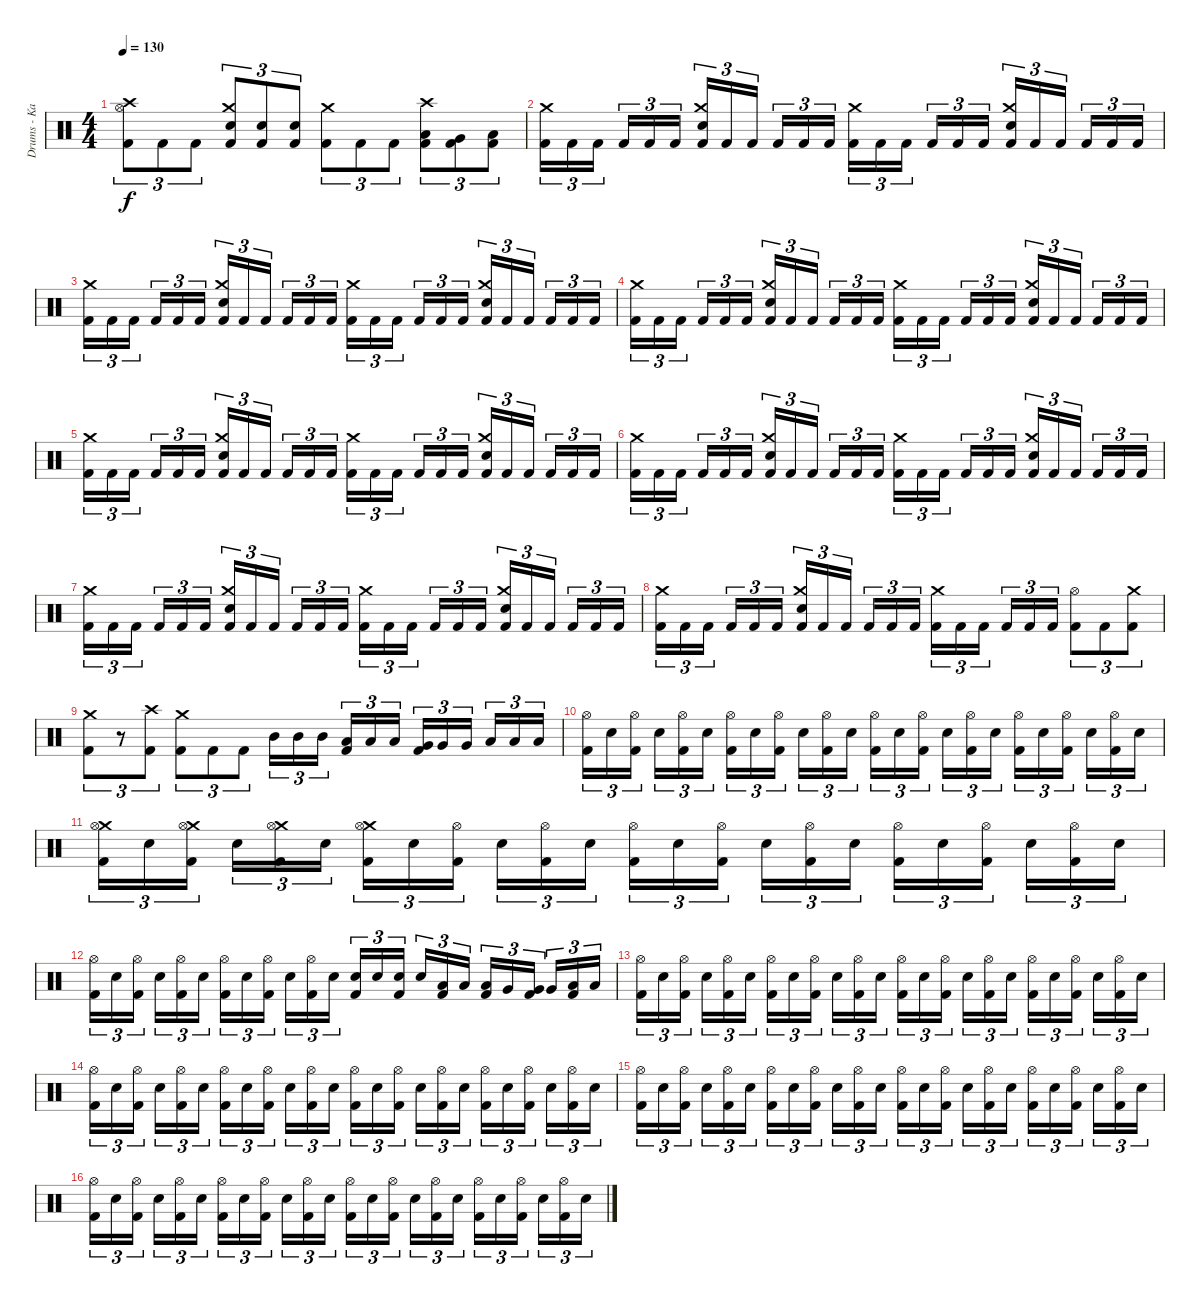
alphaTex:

\track ("Drums - Kai Hahto " "Drums - Ka") {instrument percussion}
\staff {score}
\articulation defaults
\ts (4 4)
\tempo 130
\clef neutral
\ks c
("Crash high (hit)" "Hi-Hat (open)" "Kick (hit) 2").8{tu (3 2) dy f} "Kick (hit) 2".8{tu (3 2)} "Kick (hit) 2".8{tu (3 2)} ("Crash medium (hit)" "Snare (hit) 2" "Kick (hit) 2").8{tu (3 2)} ("Snare (hit) 2" "Kick (hit) 2").8{tu (3 2)} ("Snare (hit) 2" "Kick (hit) 2").8{tu (3 2)} ("Crash medium (hit)" "Kick (hit) 2").8{tu (3 2)} "Kick (hit) 2".8{tu (3 2)} "Kick (hit) 2".8{tu (3 2)} ("Crash high (hit)" "Low Tom (hit)" "Kick (hit) 2").8{tu (3 2)} ("Very Low Tom (hit)" "Kick (hit) 2").8{tu (3 2)} ("Low Floor Tom (hit)" "Kick (hit) 2").8{tu (3 2)} |
("Crash medium (hit)" "Kick (hit) 2").16{tu (3 2)} "Kick (hit) 2".16{tu (3 2)} "Kick (hit) 2".16{tu (3 2) beam splitsecondary} "Kick (hit) 2".16{tu (3 2)} "Kick (hit) 2".16{tu (3 2)} "Kick (hit) 2".16{tu (3 2)} ("Crash medium (hit)" "Snare (hit) 2" "Kick (hit) 2").16{tu (3 2)} "Kick (hit) 2".16{tu (3 2)} "Kick (hit) 2".16{tu (3 2) beam splitsecondary} "Kick (hit) 2".16{tu (3 2)} "Kick (hit) 2".16{tu (3 2)} "Kick (hit) 2".16{tu (3 2)} ("Crash medium (hit)" "Kick (hit) 2").16{tu (3 2)} "Kick (hit) 2".16{tu (3 2)} "Kick (hit) 2".16{tu (3 2) beam splitsecondary} "Kick (hit) 2".16{tu (3 2)} "Kick (hit) 2".16{tu (3 2)} "Kick (hit) 2".16{tu (3 2)} ("Crash medium (hit)" "Snare (hit) 2" "Kick (hit) 2").16{tu (3 2)} "Kick (hit) 2".16{tu (3 2)} "Kick (hit) 2".16{tu (3 2) beam splitsecondary} "Kick (hit) 2".16{tu (3 2)} "Kick (hit) 2".16{tu (3 2)} "Kick (hit) 2".16{tu (3 2)} |
("Crash medium (hit)" "Kick (hit) 2").16{tu (3 2)} "Kick (hit) 2".16{tu (3 2)} "Kick (hit) 2".16{tu (3 2) beam splitsecondary} "Kick (hit) 2".16{tu (3 2)} "Kick (hit) 2".16{tu (3 2)} "Kick (hit) 2".16{tu (3 2)} ("Crash medium (hit)" "Snare (hit) 2" "Kick (hit) 2").16{tu (3 2)} "Kick (hit) 2".16{tu (3 2)} "Kick (hit) 2".16{tu (3 2) beam splitsecondary} "Kick (hit) 2".16{tu (3 2)} "Kick (hit) 2".16{tu (3 2)} "Kick (hit) 2".16{tu (3 2)} ("Crash medium (hit)" "Kick (hit) 2").16{tu (3 2)} "Kick (hit) 2".16{tu (3 2)} "Kick (hit) 2".16{tu (3 2) beam splitsecondary} "Kick (hit) 2".16{tu (3 2)} "Kick (hit) 2".16{tu (3 2)} "Kick (hit) 2".16{tu (3 2)} ("Crash medium (hit)" "Snare (hit) 2" "Kick (hit) 2").16{tu (3 2)} "Kick (hit) 2".16{tu (3 2)} "Kick (hit) 2".16{tu (3 2) beam splitsecondary} "Kick (hit) 2".16{tu (3 2)} "Kick (hit) 2".16{tu (3 2)} "Kick (hit) 2".16{tu (3 2)} |
("Crash medium (hit)" "Kick (hit) 2").16{tu (3 2)} "Kick (hit) 2".16{tu (3 2)} "Kick (hit) 2".16{tu (3 2) beam splitsecondary} "Kick (hit) 2".16{tu (3 2)} "Kick (hit) 2".16{tu (3 2)} "Kick (hit) 2".16{tu (3 2)} ("Crash medium (hit)" "Snare (hit) 2" "Kick (hit) 2").16{tu (3 2)} "Kick (hit) 2".16{tu (3 2)} "Kick (hit) 2".16{tu (3 2) beam splitsecondary} "Kick (hit) 2".16{tu (3 2)} "Kick (hit) 2".16{tu (3 2)} "Kick (hit) 2".16{tu (3 2)} ("Crash medium (hit)" "Kick (hit) 2").16{tu (3 2)} "Kick (hit) 2".16{tu (3 2)} "Kick (hit) 2".16{tu (3 2) beam splitsecondary} "Kick (hit) 2".16{tu (3 2)} "Kick (hit) 2".16{tu (3 2)} "Kick (hit) 2".16{tu (3 2)} ("Crash medium (hit)" "Snare (hit) 2" "Kick (hit) 2").16{tu (3 2)} "Kick (hit) 2".16{tu (3 2)} "Kick (hit) 2".16{tu (3 2) beam splitsecondary} "Kick (hit) 2".16{tu (3 2)} "Kick (hit) 2".16{tu (3 2)} "Kick (hit) 2".16{tu (3 2)} |
("Crash medium (hit)" "Kick (hit) 2").16{tu (3 2)} "Kick (hit) 2".16{tu (3 2)} "Kick (hit) 2".16{tu (3 2) beam splitsecondary} "Kick (hit) 2".16{tu (3 2)} "Kick (hit) 2".16{tu (3 2)} "Kick (hit) 2".16{tu (3 2)} ("Crash medium (hit)" "Snare (hit) 2" "Kick (hit) 2").16{tu (3 2)} "Kick (hit) 2".16{tu (3 2)} "Kick (hit) 2".16{tu (3 2) beam splitsecondary} "Kick (hit) 2".16{tu (3 2)} "Kick (hit) 2".16{tu (3 2)} "Kick (hit) 2".16{tu (3 2)} ("Crash medium (hit)" "Kick (hit) 2").16{tu (3 2)} "Kick (hit) 2".16{tu (3 2)} "Kick (hit) 2".16{tu (3 2) beam splitsecondary} "Kick (hit) 2".16{tu (3 2)} "Kick (hit) 2".16{tu (3 2)} "Kick (hit) 2".16{tu (3 2)} ("Crash medium (hit)" "Snare (hit) 2" "Kick (hit) 2").16{tu (3 2)} "Kick (hit) 2".16{tu (3 2)} "Kick (hit) 2".16{tu (3 2) beam splitsecondary} "Kick (hit) 2".16{tu (3 2)} "Kick (hit) 2".16{tu (3 2)} "Kick (hit) 2".16{tu (3 2)} |
("Crash medium (hit)" "Kick (hit) 2").16{tu (3 2)} "Kick (hit) 2".16{tu (3 2)} "Kick (hit) 2".16{tu (3 2) beam splitsecondary} "Kick (hit) 2".16{tu (3 2)} "Kick (hit) 2".16{tu (3 2)} "Kick (hit) 2".16{tu (3 2)} ("Crash medium (hit)" "Snare (hit) 2" "Kick (hit) 2").16{tu (3 2)} "Kick (hit) 2".16{tu (3 2)} "Kick (hit) 2".16{tu (3 2) beam splitsecondary} "Kick (hit) 2".16{tu (3 2)} "Kick (hit) 2".16{tu (3 2)} "Kick (hit) 2".16{tu (3 2)} ("Crash medium (hit)" "Kick (hit) 2").16{tu (3 2)} "Kick (hit) 2".16{tu (3 2)} "Kick (hit) 2".16{tu (3 2) beam splitsecondary} "Kick (hit) 2".16{tu (3 2)} "Kick (hit) 2".16{tu (3 2)} "Kick (hit) 2".16{tu (3 2)} ("Crash medium (hit)" "Snare (hit) 2" "Kick (hit) 2").16{tu (3 2)} "Kick (hit) 2".16{tu (3 2)} "Kick (hit) 2".16{tu (3 2) beam splitsecondary} "Kick (hit) 2".16{tu (3 2)} "Kick (hit) 2".16{tu (3 2)} "Kick (hit) 2".16{tu (3 2)} |
("Crash medium (hit)" "Kick (hit) 2").16{tu (3 2)} "Kick (hit) 2".16{tu (3 2)} "Kick (hit) 2".16{tu (3 2) beam splitsecondary} "Kick (hit) 2".16{tu (3 2)} "Kick (hit) 2".16{tu (3 2)} "Kick (hit) 2".16{tu (3 2)} ("Crash medium (hit)" "Snare (hit) 2" "Kick (hit) 2").16{tu (3 2)} "Kick (hit) 2".16{tu (3 2)} "Kick (hit) 2".16{tu (3 2) beam splitsecondary} "Kick (hit) 2".16{tu (3 2)} "Kick (hit) 2".16{tu (3 2)} "Kick (hit) 2".16{tu (3 2)} ("Crash medium (hit)" "Kick (hit) 2").16{tu (3 2)} "Kick (hit) 2".16{tu (3 2)} "Kick (hit) 2".16{tu (3 2) beam splitsecondary} "Kick (hit) 2".16{tu (3 2)} "Kick (hit) 2".16{tu (3 2)} "Kick (hit) 2".16{tu (3 2)} ("Crash medium (hit)" "Snare (hit) 2" "Kick (hit) 2").16{tu (3 2)} "Kick (hit) 2".16{tu (3 2)} "Kick (hit) 2".16{tu (3 2) beam splitsecondary} "Kick (hit) 2".16{tu (3 2)} "Kick (hit) 2".16{tu (3 2)} "Kick (hit) 2".16{tu (3 2)} |
("Crash medium (hit)" "Kick (hit) 2").16{tu (3 2)} "Kick (hit) 2".16{tu (3 2)} "Kick (hit) 2".16{tu (3 2) beam splitsecondary} "Kick (hit) 2".16{tu (3 2)} "Kick (hit) 2".16{tu (3 2)} "Kick (hit) 2".16{tu (3 2)} ("Crash medium (hit)" "Snare (hit) 2" "Kick (hit) 2").16{tu (3 2)} "Kick (hit) 2".16{tu (3 2)} "Kick (hit) 2".16{tu (3 2) beam splitsecondary} "Kick (hit) 2".16{tu (3 2)} "Kick (hit) 2".16{tu (3 2)} "Kick (hit) 2".16{tu (3 2)} ("Crash medium (hit)" "Kick (hit) 2").16{tu (3 2)} "Kick (hit) 2".16{tu (3 2)} "Kick (hit) 2".16{tu (3 2) beam splitsecondary} "Kick (hit) 2".16{tu (3 2)} "Kick (hit) 2".16{tu (3 2)} "Kick (hit) 2".16{tu (3 2)} ("Hi-Hat (open)" "Kick (hit) 2").8{tu (3 2)} "Kick (hit) 2".8{tu (3 2)} ("Crash medium (hit)" "Kick (hit) 2").8{tu (3 2)} |
("Crash medium (hit)" "Kick (hit) 2").8{tu (3 2)} r.8{tu (3 2)} ("Crash high (hit)" "Kick (hit) 2").8{tu (3 2)} ("Crash medium (hit)" "Kick (hit) 2").8{tu (3 2)} "Kick (hit) 2".8{tu (3 2)} "Kick (hit) 2".8{tu (3 2)} "Mid Tom (hit)".16{tu (3 2)} "Mid Tom (hit)".16{tu (3 2)} "Mid Tom (hit)".16{tu (3 2) beam splitsecondary} ("Low Tom (hit)" "Kick (hit) 2").16{tu (3 2)} "Low Tom (hit)".16{tu (3 2)} "Low Tom (hit)".16{tu (3 2)} ("Very Low Tom (hit)" "Kick (hit) 2").16{tu (3 2)} "Very Low Tom (hit)".16{tu (3 2)} "Very Low Tom (hit)".16{tu (3 2) beam splitsecondary} "Low Floor Tom (hit)".16{tu (3 2)} "Low Floor Tom (hit)".16{tu (3 2)} "Low Floor Tom (hit)".16{tu (3 2)} |
("Hi-Hat (open)" "Kick (hit) 2").16{tu (3 2)} "Snare (hit) 2".16{tu (3 2)} ("Hi-Hat (open)" "Kick (hit) 2").16{tu (3 2) beam splitsecondary} "Snare (hit) 2".16{tu (3 2)} ("Hi-Hat (open)" "Kick (hit) 2").16{tu (3 2)} "Snare (hit) 2".16{tu (3 2)} ("Hi-Hat (open)" "Kick (hit) 2").16{tu (3 2)} "Snare (hit) 2".16{tu (3 2)} ("Hi-Hat (open)" "Kick (hit) 2").16{tu (3 2) beam splitsecondary} "Snare (hit) 2".16{tu (3 2)} ("Hi-Hat (open)" "Kick (hit) 2").16{tu (3 2)} "Snare (hit) 2".16{tu (3 2)} ("Hi-Hat (open)" "Kick (hit) 2").16{tu (3 2)} "Snare (hit) 2".16{tu (3 2)} ("Hi-Hat (open)" "Kick (hit) 2").16{tu (3 2) beam splitsecondary} "Snare (hit) 2".16{tu (3 2)} ("Hi-Hat (open)" "Kick (hit) 2").16{tu (3 2)} "Snare (hit) 2".16{tu (3 2)} ("Hi-Hat (open)" "Kick (hit) 2").16{tu (3 2)} "Snare (hit) 2".16{tu (3 2)} ("Hi-Hat (open)" "Kick (hit) 2").16{tu (3 2) beam splitsecondary} "Snare (hit) 2".16{tu (3 2)} ("Hi-Hat (open)" "Kick (hit) 2").16{tu (3 2)} "Snare (hit) 2".16{tu (3 2)} |
("Crash medium (hit)" "Hi-Hat (open)" "Kick (hit) 2").16{tu (3 2)} "Snare (hit) 2".16{tu (3 2)} ("Crash medium (hit)" "Hi-Hat (open)" "Kick (hit) 2").16{tu (3 2) beam splitsecondary} "Snare (hit) 2".16{tu (3 2)} ("Crash medium (hit)" "Hi-Hat (open)" "Kick (hit) 2").16{tu (3 2)} "Snare (hit) 2".16{tu (3 2)} ("Crash medium (hit)" "Hi-Hat (open)" "Kick (hit) 2").16{tu (3 2)} "Snare (hit) 2".16{tu (3 2)} ("Hi-Hat (open)" "Kick (hit) 2").16{tu (3 2) beam splitsecondary} "Snare (hit) 2".16{tu (3 2)} ("Hi-Hat (open)" "Kick (hit) 2").16{tu (3 2)} "Snare (hit) 2".16{tu (3 2)} ("Hi-Hat (open)" "Kick (hit) 2").16{tu (3 2)} "Snare (hit) 2".16{tu (3 2)} ("Hi-Hat (open)" "Kick (hit) 2").16{tu (3 2) beam splitsecondary} "Snare (hit) 2".16{tu (3 2)} ("Hi-Hat (open)" "Kick (hit) 2").16{tu (3 2)} "Snare (hit) 2".16{tu (3 2)} ("Hi-Hat (open)" "Kick (hit) 2").16{tu (3 2)} "Snare (hit) 2".16{tu (3 2)} ("Hi-Hat (open)" "Kick (hit) 2").16{tu (3 2) beam splitsecondary} "Snare (hit) 2".16{tu (3 2)} ("Hi-Hat (open)" "Kick (hit) 2").16{tu (3 2)} "Snare (hit) 2".16{tu (3 2)} |
("Hi-Hat (open)" "Kick (hit) 2").16{tu (3 2)} "Snare (hit) 2".16{tu (3 2)} ("Hi-Hat (open)" "Kick (hit) 2").16{tu (3 2) beam splitsecondary} "Snare (hit) 2".16{tu (3 2)} ("Hi-Hat (open)" "Kick (hit) 2").16{tu (3 2)} "Snare (hit) 2".16{tu (3 2)} ("Hi-Hat (open)" "Kick (hit) 2").16{tu (3 2)} "Snare (hit) 2".16{tu (3 2)} ("Hi-Hat (open)" "Kick (hit) 2").16{tu (3 2) beam splitsecondary} "Snare (hit) 2".16{tu (3 2)} ("Hi-Hat (open)" "Kick (hit) 2").16{tu (3 2)} "Snare (hit) 2".16{tu (3 2)} ("Snare (hit) 2" "Kick (hit) 2").16{tu (3 2)} "Snare (hit) 2".16{tu (3 2)} ("Snare (hit) 2" "Kick (hit) 2").16{tu (3 2) beam splitsecondary} "Snare (hit) 2".16{tu (3 2)} ("Low Tom (hit)" "Kick (hit) 2").16{tu (3 2)} "Low Tom (hit)".16{tu (3 2)} ("Low Tom (hit)" "Kick (hit) 2").16{tu (3 2)} "Very Low Tom (hit)".16{tu (3 2)} ("Very Low Tom (hit)" "Kick (hit) 2").16{tu (3 2) beam splitsecondary} "Very Low Tom (hit)".16{tu (3 2)} ("Low Floor Tom (hit)" "Kick (hit) 2").16{tu (3 2)} "Low Floor Tom (hit)".16{tu (3 2)} |
("Hi-Hat (open)" "Kick (hit) 2").16{tu (3 2)} "Snare (hit) 2".16{tu (3 2)} ("Hi-Hat (open)" "Kick (hit) 2").16{tu (3 2) beam splitsecondary} "Snare (hit) 2".16{tu (3 2)} ("Hi-Hat (open)" "Kick (hit) 2").16{tu (3 2)} "Snare (hit) 2".16{tu (3 2)} ("Hi-Hat (open)" "Kick (hit) 2").16{tu (3 2)} "Snare (hit) 2".16{tu (3 2)} ("Hi-Hat (open)" "Kick (hit) 2").16{tu (3 2) beam splitsecondary} "Snare (hit) 2".16{tu (3 2)} ("Hi-Hat (open)" "Kick (hit) 2").16{tu (3 2)} "Snare (hit) 2".16{tu (3 2)} ("Hi-Hat (open)" "Kick (hit) 2").16{tu (3 2)} "Snare (hit) 2".16{tu (3 2)} ("Hi-Hat (open)" "Kick (hit) 2").16{tu (3 2) beam splitsecondary} "Snare (hit) 2".16{tu (3 2)} ("Hi-Hat (open)" "Kick (hit) 2").16{tu (3 2)} "Snare (hit) 2".16{tu (3 2)} ("Hi-Hat (open)" "Kick (hit) 2").16{tu (3 2)} "Snare (hit) 2".16{tu (3 2)} ("Hi-Hat (open)" "Kick (hit) 2").16{tu (3 2) beam splitsecondary} "Snare (hit) 2".16{tu (3 2)} ("Hi-Hat (open)" "Kick (hit) 2").16{tu (3 2)} "Snare (hit) 2".16{tu (3 2)} |
("Hi-Hat (open)" "Kick (hit) 2").16{tu (3 2)} "Snare (hit) 2".16{tu (3 2)} ("Hi-Hat (open)" "Kick (hit) 2").16{tu (3 2) beam splitsecondary} "Snare (hit) 2".16{tu (3 2)} ("Hi-Hat (open)" "Kick (hit) 2").16{tu (3 2)} "Snare (hit) 2".16{tu (3 2)} ("Hi-Hat (open)" "Kick (hit) 2").16{tu (3 2)} "Snare (hit) 2".16{tu (3 2)} ("Hi-Hat (open)" "Kick (hit) 2").16{tu (3 2) beam splitsecondary} "Snare (hit) 2".16{tu (3 2)} ("Hi-Hat (open)" "Kick (hit) 2").16{tu (3 2)} "Snare (hit) 2".16{tu (3 2)} ("Hi-Hat (open)" "Kick (hit) 2").16{tu (3 2)} "Snare (hit) 2".16{tu (3 2)} ("Hi-Hat (open)" "Kick (hit) 2").16{tu (3 2) beam splitsecondary} "Snare (hit) 2".16{tu (3 2)} ("Hi-Hat (open)" "Kick (hit) 2").16{tu (3 2)} "Snare (hit) 2".16{tu (3 2)} ("Hi-Hat (open)" "Kick (hit) 2").16{tu (3 2)} "Snare (hit) 2".16{tu (3 2)} ("Hi-Hat (open)" "Kick (hit) 2").16{tu (3 2) beam splitsecondary} "Snare (hit) 2".16{tu (3 2)} ("Hi-Hat (open)" "Kick (hit) 2").16{tu (3 2)} "Snare (hit) 2".16{tu (3 2)} |
("Hi-Hat (open)" "Kick (hit) 2").16{tu (3 2)} "Snare (hit) 2".16{tu (3 2)} ("Hi-Hat (open)" "Kick (hit) 2").16{tu (3 2) beam splitsecondary} "Snare (hit) 2".16{tu (3 2)} ("Hi-Hat (open)" "Kick (hit) 2").16{tu (3 2)} "Snare (hit) 2".16{tu (3 2)} ("Hi-Hat (open)" "Kick (hit) 2").16{tu (3 2)} "Snare (hit) 2".16{tu (3 2)} ("Hi-Hat (open)" "Kick (hit) 2").16{tu (3 2) beam splitsecondary} "Snare (hit) 2".16{tu (3 2)} ("Hi-Hat (open)" "Kick (hit) 2").16{tu (3 2)} "Snare (hit) 2".16{tu (3 2)} ("Hi-Hat (open)" "Kick (hit) 2").16{tu (3 2)} "Snare (hit) 2".16{tu (3 2)} ("Hi-Hat (open)" "Kick (hit) 2").16{tu (3 2) beam splitsecondary} "Snare (hit) 2".16{tu (3 2)} ("Hi-Hat (open)" "Kick (hit) 2").16{tu (3 2)} "Snare (hit) 2".16{tu (3 2)} ("Hi-Hat (open)" "Kick (hit) 2").16{tu (3 2)} "Snare (hit) 2".16{tu (3 2)} ("Hi-Hat (open)" "Kick (hit) 2").16{tu (3 2) beam splitsecondary} "Snare (hit) 2".16{tu (3 2)} ("Hi-Hat (open)" "Kick (hit) 2").16{tu (3 2)} "Snare (hit) 2".16{tu (3 2)} |
("Hi-Hat (open)" "Kick (hit) 2").16{tu (3 2)} "Snare (hit) 2".16{tu (3 2)} ("Hi-Hat (open)" "Kick (hit) 2").16{tu (3 2) beam splitsecondary} "Snare (hit) 2".16{tu (3 2)} ("Hi-Hat (open)" "Kick (hit) 2").16{tu (3 2)} "Snare (hit) 2".16{tu (3 2)} ("Hi-Hat (open)" "Kick (hit) 2").16{tu (3 2)} "Snare (hit) 2".16{tu (3 2)} ("Hi-Hat (open)" "Kick (hit) 2").16{tu (3 2) beam splitsecondary} "Snare (hit) 2".16{tu (3 2)} ("Hi-Hat (open)" "Kick (hit) 2").16{tu (3 2)} "Snare (hit) 2".16{tu (3 2)} ("Hi-Hat (open)" "Kick (hit) 2").16{tu (3 2)} "Snare (hit) 2".16{tu (3 2)} ("Hi-Hat (open)" "Kick (hit) 2").16{tu (3 2) beam splitsecondary} "Snare (hit) 2".16{tu (3 2)} ("Hi-Hat (open)" "Kick (hit) 2").16{tu (3 2)} "Snare (hit) 2".16{tu (3 2)} ("Hi-Hat (open)" "Kick (hit) 2").16{tu (3 2)} "Snare (hit) 2".16{tu (3 2)} ("Hi-Hat (open)" "Kick (hit) 2").16{tu (3 2) beam splitsecondary} "Snare (hit) 2".16{tu (3 2)} ("Hi-Hat (open)" "Kick (hit) 2").16{tu (3 2)} "Snare (hit) 2".16{tu (3 2)}
